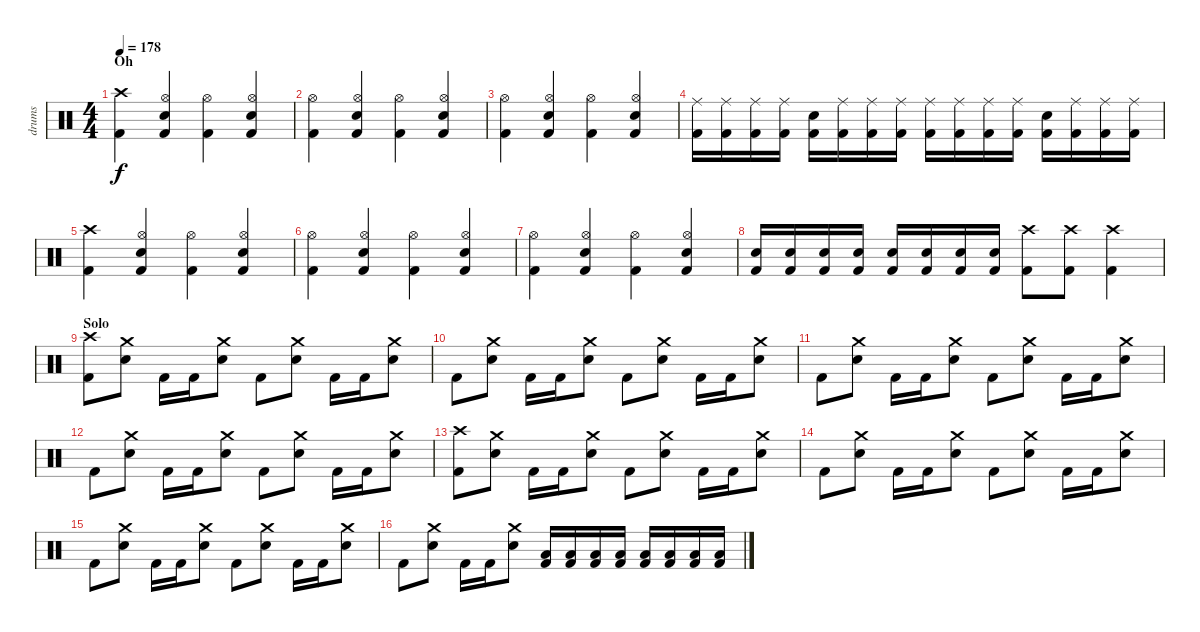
\track ("drums" "drums") {instrument percussion}
\staff {score}
\articulation defaults
\ts (4 4)
\section ("" "Oh")
\tempo 178
\clef neutral
\ks c
("Crash high (hit)" "Kick (hit) 2").4{dy f} ("Hi-Hat (open)" "Electric Snare (hit)" "Kick (hit) 2").4 ("Hi-Hat (open)" "Kick (hit) 2").4 ("Hi-Hat (open)" "Electric Snare (hit)" "Kick (hit) 2").4 |
("Hi-Hat (open)" "Kick (hit) 2").4 ("Hi-Hat (open)" "Electric Snare (hit)" "Kick (hit) 2").4 ("Hi-Hat (open)" "Kick (hit) 2").4 ("Hi-Hat (open)" "Electric Snare (hit)" "Kick (hit) 2").4 |
("Hi-Hat (open)" "Kick (hit) 2").4 ("Hi-Hat (open)" "Electric Snare (hit)" "Kick (hit) 2").4 ("Hi-Hat (open)" "Kick (hit) 2").4 ("Hi-Hat (open)" "Electric Snare (hit)" "Kick (hit) 2").4 |
("Ride (middle)" "Kick (hit) 2").16 ("Ride (middle)" "Kick (hit) 2").16 ("Ride (middle)" "Kick (hit) 2").16 ("Ride (middle)" "Kick (hit) 2").16 ("Electric Snare (hit)" "Kick (hit) 2").16 ("Ride (middle)" "Kick (hit) 2").16 ("Ride (middle)" "Kick (hit) 2").16 ("Ride (middle)" "Kick (hit) 2").16 ("Ride (middle)" "Kick (hit) 2").16 ("Ride (middle)" "Kick (hit) 2").16 ("Ride (middle)" "Kick (hit) 2").16 ("Ride (middle)" "Kick (hit) 2").16 ("Electric Snare (hit)" "Kick (hit) 2").16 ("Ride (middle)" "Kick (hit) 2").16 ("Ride (middle)" "Kick (hit) 2").16 ("Ride (middle)" "Kick (hit) 2").16 |
("Crash high (hit)" "Kick (hit) 2").4 ("Hi-Hat (open)" "Electric Snare (hit)" "Kick (hit) 2").4 ("Hi-Hat (open)" "Kick (hit) 2").4 ("Hi-Hat (open)" "Electric Snare (hit)" "Kick (hit) 2").4 |
("Hi-Hat (open)" "Kick (hit) 2").4 ("Hi-Hat (open)" "Electric Snare (hit)" "Kick (hit) 2").4 ("Hi-Hat (open)" "Kick (hit) 2").4 ("Hi-Hat (open)" "Electric Snare (hit)" "Kick (hit) 2").4 |
("Hi-Hat (open)" "Kick (hit) 2").4 ("Hi-Hat (open)" "Electric Snare (hit)" "Kick (hit) 2").4 ("Hi-Hat (open)" "Kick (hit) 2").4 ("Hi-Hat (open)" "Electric Snare (hit)" "Kick (hit) 2").4 |
("Electric Snare (hit)" "Kick (hit) 2").16 ("Electric Snare (hit)" "Kick (hit) 2").16 ("Electric Snare (hit)" "Kick (hit) 2").16 ("Electric Snare (hit)" "Kick (hit) 2").16 ("Electric Snare (hit)" "Kick (hit) 2").16 ("Electric Snare (hit)" "Kick (hit) 2").16 ("Electric Snare (hit)" "Kick (hit) 2").16 ("Electric Snare (hit)" "Kick (hit) 2").16 ("Crash high (hit)" "Kick (hit) 2").8 ("Crash high (hit)" "Kick (hit) 2").8 ("Crash high (hit)" "Kick (hit) 2").4 |
\section ("" "Solo")
("Crash high (hit)" "Kick (hit) 2").8 ("Crash medium (hit)" "Electric Snare (hit)").8 "Kick (hit) 2".16 "Kick (hit) 2".16 ("Crash medium (hit)" "Electric Snare (hit)").8 "Kick (hit) 2".8 ("Crash medium (hit)" "Electric Snare (hit)").8 "Kick (hit) 2".16 "Kick (hit) 2".16 ("Crash medium (hit)" "Electric Snare (hit)").8 |
"Kick (hit) 2".8 ("Crash medium (hit)" "Electric Snare (hit)").8 "Kick (hit) 2".16 "Kick (hit) 2".16 ("Crash medium (hit)" "Electric Snare (hit)").8 "Kick (hit) 2".8 ("Crash medium (hit)" "Electric Snare (hit)").8 "Kick (hit) 2".16 "Kick (hit) 2".16 ("Crash medium (hit)" "Electric Snare (hit)").8 |
"Kick (hit) 2".8 ("Crash medium (hit)" "Electric Snare (hit)").8 "Kick (hit) 2".16 "Kick (hit) 2".16 ("Crash medium (hit)" "Electric Snare (hit)").8 "Kick (hit) 2".8 ("Crash medium (hit)" "Electric Snare (hit)").8 "Kick (hit) 2".16 "Kick (hit) 2".16 ("Crash medium (hit)" "Electric Snare (hit)").8 |
"Kick (hit) 2".8 ("Crash medium (hit)" "Electric Snare (hit)").8 "Kick (hit) 2".16 "Kick (hit) 2".16 ("Crash medium (hit)" "Electric Snare (hit)").8 "Kick (hit) 2".8 ("Crash medium (hit)" "Electric Snare (hit)").8 "Kick (hit) 2".16 "Kick (hit) 2".16 ("Crash medium (hit)" "Electric Snare (hit)").8 |
("Crash high (hit)" "Kick (hit) 2").8 ("Crash medium (hit)" "Electric Snare (hit)").8 "Kick (hit) 2".16 "Kick (hit) 2".16 ("Crash medium (hit)" "Electric Snare (hit)").8 "Kick (hit) 2".8 ("Crash medium (hit)" "Electric Snare (hit)").8 "Kick (hit) 2".16 "Kick (hit) 2".16 ("Crash medium (hit)" "Electric Snare (hit)").8 |
"Kick (hit) 2".8 ("Crash medium (hit)" "Electric Snare (hit)").8 "Kick (hit) 2".16 "Kick (hit) 2".16 ("Crash medium (hit)" "Electric Snare (hit)").8 "Kick (hit) 2".8 ("Crash medium (hit)" "Electric Snare (hit)").8 "Kick (hit) 2".16 "Kick (hit) 2".16 ("Crash medium (hit)" "Electric Snare (hit)").8 |
"Kick (hit) 2".8 ("Crash medium (hit)" "Electric Snare (hit)").8 "Kick (hit) 2".16 "Kick (hit) 2".16 ("Crash medium (hit)" "Electric Snare (hit)").8 "Kick (hit) 2".8 ("Crash medium (hit)" "Electric Snare (hit)").8 "Kick (hit) 2".16 "Kick (hit) 2".16 ("Crash medium (hit)" "Electric Snare (hit)").8 |
"Kick (hit) 2".8 ("Crash medium (hit)" "Electric Snare (hit)").8 "Kick (hit) 2".16 "Kick (hit) 2".16 ("Crash medium (hit)" "Electric Snare (hit)").8 ("Low Tom (hit)" "Kick (hit) 2").16 ("Low Tom (hit)" "Kick (hit) 2").16 ("Low Tom (hit)" "Kick (hit) 2").16 ("Low Tom (hit)" "Kick (hit) 2").16 ("Low Tom (hit)" "Kick (hit) 2").16 ("Low Tom (hit)" "Kick (hit) 2").16 ("Low Tom (hit)" "Kick (hit) 2").16 ("Low Tom (hit)" "Kick (hit) 2").16
